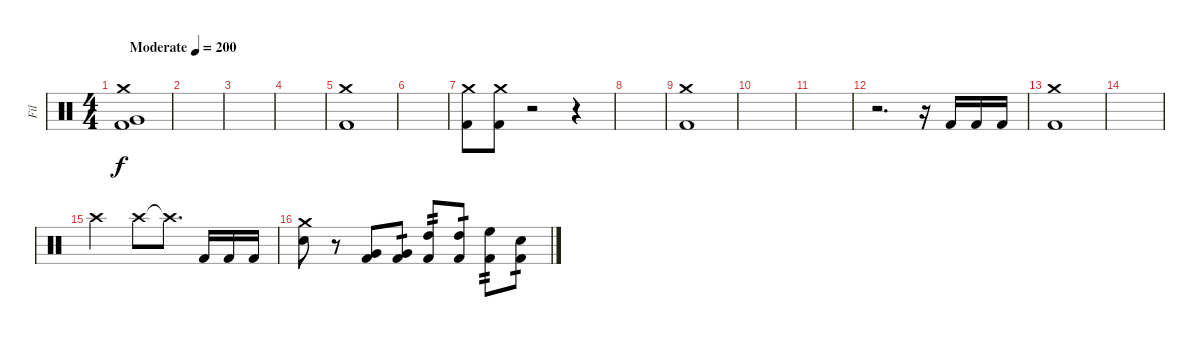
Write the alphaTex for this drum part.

\track ("Fil" "Fil") {instrument percussion}
\staff {score}
\articulation defaults
\ts (4 4)
\tempo (200 "Moderate")
\clef neutral
\ks c
("Very Low Tom (hit)" "Crash medium (hit)" "Kick (hit) 2").1{dy f} |
|
|
|
("Crash medium (hit)" "Kick (hit) 2").1 |
|
("Crash medium (hit)" "Kick (hit) 2").8 ("Crash medium (hit)" "Kick (hit) 2").8 r.2 r.4 |
|
("Crash medium (hit)" "Kick (hit) 2").1 |
|
|
r.2{d} r.16 "Kick (hit) 2".16 "Kick (hit) 2".16 "Kick (hit) 2".16 |
("Crash medium (hit)" "Kick (hit) 2").1 |
|
"Crash high (hit)".2 "Crash high (hit)".8 "Crash high (hit)"{t}.8{d} "Kick (hit) 2".16 "Kick (hit) 2".16 "Kick (hit) 2".16 |
("Crash medium (hit)" "Electric Snare (hit)").8 r.8 ("Very Low Tom (hit)" "Kick (hit) 2").8 ("Very Low Tom (hit)" "Kick (hit) 2").8{tp 1} ("High Tom (hit)" "Kick (hit) 2").8{tp 2} ("High Tom (hit)" "Kick (hit) 2").8{tp 1} ("High Floor Tom (hit)" "Kick (hit) 2").8{tp 2} ("Snare (hit) 2" "Kick (hit) 2").8{tp 1}
